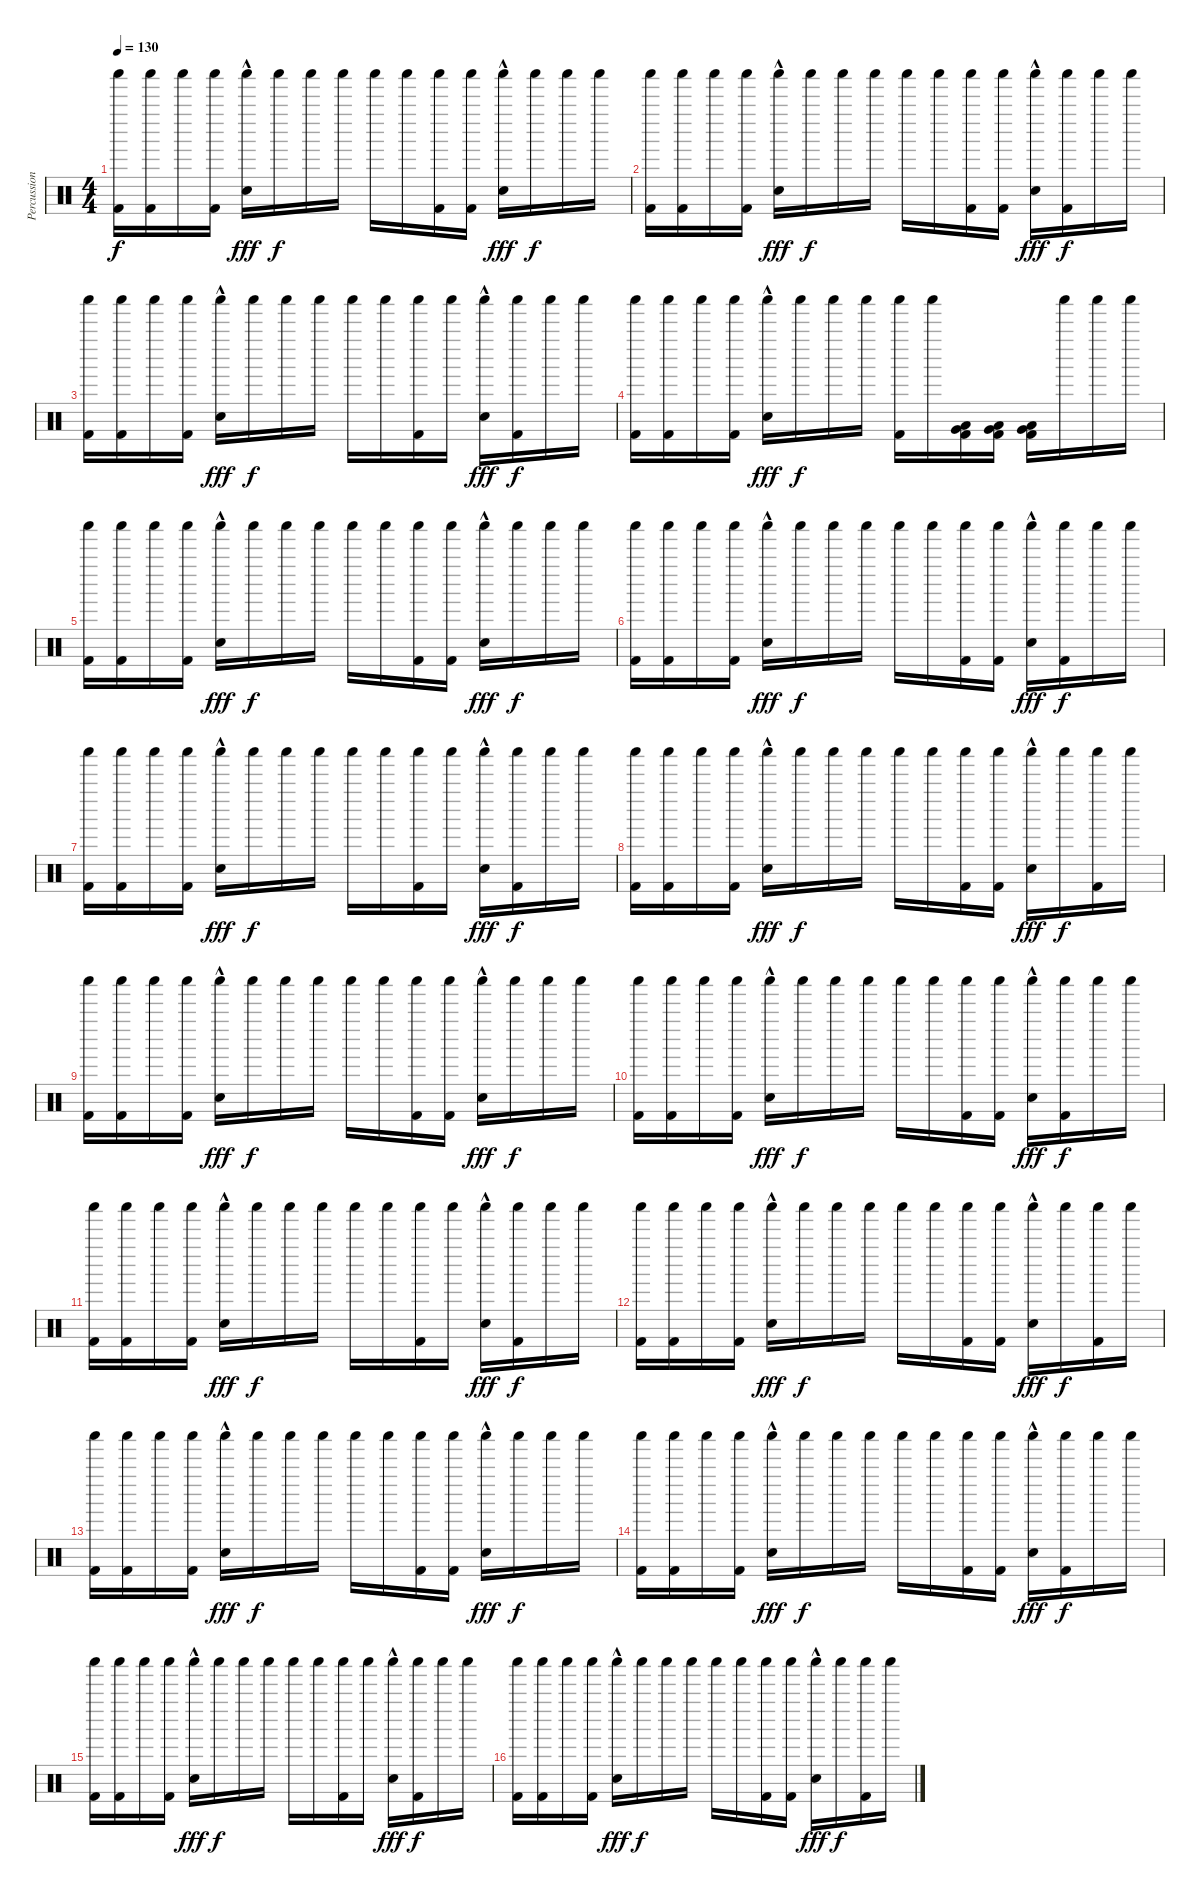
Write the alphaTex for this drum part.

\track ("Percussion" "Percussion") {instrument percussion}
\staff {score}
\articulation defaults
\ts (4 4)
\tempo 130
\clef neutral
\ks c
("Shaker (hit)" "Kick (hit) 2").16{dy f} ("Shaker (hit)" "Kick (hit) 2").16 "Shaker (hit)".16 ("Shaker (hit)" "Kick (hit) 2").16 ("Shaker (hit)" "Snare (hit) 2"{hac}).16{dy fff} "Shaker (hit)".16{dy f} "Shaker (hit)".16 "Shaker (hit)".16 "Shaker (hit)".16 "Shaker (hit)".16 ("Shaker (hit)" "Kick (hit) 2").16 ("Shaker (hit)" "Kick (hit) 2").16 ("Shaker (hit)" "Snare (hit) 2"{hac}).16{dy fff} "Shaker (hit)".16{dy f} "Shaker (hit)".16 "Shaker (hit)".16 |
("Shaker (hit)" "Kick (hit) 2").16 ("Shaker (hit)" "Kick (hit) 2").16 "Shaker (hit)".16 ("Shaker (hit)" "Kick (hit) 2").16 ("Shaker (hit)" "Snare (hit) 2"{hac}).16{dy fff} "Shaker (hit)".16{dy f} "Shaker (hit)".16 "Shaker (hit)".16 "Shaker (hit)".16 "Shaker (hit)".16 ("Shaker (hit)" "Kick (hit) 2").16 ("Shaker (hit)" "Kick (hit) 2").16 ("Shaker (hit)" "Snare (hit) 2"{hac}).16{dy fff} ("Shaker (hit)" "Kick (hit) 2").16{dy f} "Shaker (hit)".16 "Shaker (hit)".16 |
("Shaker (hit)" "Kick (hit) 2").16 ("Shaker (hit)" "Kick (hit) 2").16 "Shaker (hit)".16 ("Shaker (hit)" "Kick (hit) 2").16 ("Shaker (hit)" "Snare (hit) 2"{hac}).16{dy fff} "Shaker (hit)".16{dy f} "Shaker (hit)".16 "Shaker (hit)".16 "Shaker (hit)".16 "Shaker (hit)".16 ("Shaker (hit)" "Kick (hit) 2").16 "Shaker (hit)".16 ("Shaker (hit)" "Snare (hit) 2"{hac}).16{dy fff} ("Shaker (hit)" "Kick (hit) 2").16{dy f} "Shaker (hit)".16 "Shaker (hit)".16 |
("Shaker (hit)" "Kick (hit) 2").16 ("Shaker (hit)" "Kick (hit) 2").16 "Shaker (hit)".16 ("Shaker (hit)" "Kick (hit) 2").16 ("Shaker (hit)" "Snare (hit) 2"{hac}).16{dy fff} "Shaker (hit)".16{dy f} "Shaker (hit)".16 "Shaker (hit)".16 ("Shaker (hit)" "Kick (hit) 2").16 "Shaker (hit)".16 ("Low Floor Tom (hit)" "Very Low Tom (hit)" "Kick (hit) 2").16 ("Low Floor Tom (hit)" "Very Low Tom (hit)" "Kick (hit) 2").16 ("Low Floor Tom (hit)" "Very Low Tom (hit)" "Kick (hit) 2").16 "Shaker (hit)".16 "Shaker (hit)".16 "Shaker (hit)".16 |
("Shaker (hit)" "Kick (hit) 2").16 ("Shaker (hit)" "Kick (hit) 2").16 "Shaker (hit)".16 ("Shaker (hit)" "Kick (hit) 2").16 ("Shaker (hit)" "Snare (hit) 2"{hac}).16{dy fff} "Shaker (hit)".16{dy f} "Shaker (hit)".16 "Shaker (hit)".16 "Shaker (hit)".16 "Shaker (hit)".16 ("Shaker (hit)" "Kick (hit) 2").16 ("Shaker (hit)" "Kick (hit) 2").16 ("Shaker (hit)" "Snare (hit) 2"{hac}).16{dy fff} "Shaker (hit)".16{dy f} "Shaker (hit)".16 "Shaker (hit)".16 |
("Shaker (hit)" "Kick (hit) 2").16 ("Shaker (hit)" "Kick (hit) 2").16 "Shaker (hit)".16 ("Shaker (hit)" "Kick (hit) 2").16 ("Shaker (hit)" "Snare (hit) 2"{hac}).16{dy fff} "Shaker (hit)".16{dy f} "Shaker (hit)".16 "Shaker (hit)".16 "Shaker (hit)".16 "Shaker (hit)".16 ("Shaker (hit)" "Kick (hit) 2").16 ("Shaker (hit)" "Kick (hit) 2").16 ("Shaker (hit)" "Snare (hit) 2"{hac}).16{dy fff} ("Shaker (hit)" "Kick (hit) 2").16{dy f} "Shaker (hit)".16 "Shaker (hit)".16 |
("Shaker (hit)" "Kick (hit) 2").16 ("Shaker (hit)" "Kick (hit) 2").16 "Shaker (hit)".16 ("Shaker (hit)" "Kick (hit) 2").16 ("Shaker (hit)" "Snare (hit) 2"{hac}).16{dy fff} "Shaker (hit)".16{dy f} "Shaker (hit)".16 "Shaker (hit)".16 "Shaker (hit)".16 "Shaker (hit)".16 ("Shaker (hit)" "Kick (hit) 2").16 "Shaker (hit)".16 ("Shaker (hit)" "Snare (hit) 2"{hac}).16{dy fff} ("Shaker (hit)" "Kick (hit) 2").16{dy f} "Shaker (hit)".16 "Shaker (hit)".16 |
("Shaker (hit)" "Kick (hit) 2").16 ("Shaker (hit)" "Kick (hit) 2").16 "Shaker (hit)".16 ("Shaker (hit)" "Kick (hit) 2").16 ("Shaker (hit)" "Snare (hit) 2"{hac}).16{dy fff} "Shaker (hit)".16{dy f} "Shaker (hit)".16 "Shaker (hit)".16 "Shaker (hit)".16 "Shaker (hit)".16 ("Shaker (hit)" "Kick (hit) 2").16 ("Shaker (hit)" "Kick (hit) 2").16 ("Shaker (hit)" "Snare (hit) 2"{hac}).16{dy fff} "Shaker (hit)".16{dy f} ("Shaker (hit)" "Kick (hit) 2").16 "Shaker (hit)".16 |
("Shaker (hit)" "Kick (hit) 2").16 ("Shaker (hit)" "Kick (hit) 2").16 "Shaker (hit)".16 ("Shaker (hit)" "Kick (hit) 2").16 ("Shaker (hit)" "Snare (hit) 2"{hac}).16{dy fff} "Shaker (hit)".16{dy f} "Shaker (hit)".16 "Shaker (hit)".16 "Shaker (hit)".16 "Shaker (hit)".16 ("Shaker (hit)" "Kick (hit) 2").16 ("Shaker (hit)" "Kick (hit) 2").16 ("Shaker (hit)" "Snare (hit) 2"{hac}).16{dy fff} "Shaker (hit)".16{dy f} "Shaker (hit)".16 "Shaker (hit)".16 |
("Shaker (hit)" "Kick (hit) 2").16 ("Shaker (hit)" "Kick (hit) 2").16 "Shaker (hit)".16 ("Shaker (hit)" "Kick (hit) 2").16 ("Shaker (hit)" "Snare (hit) 2"{hac}).16{dy fff} "Shaker (hit)".16{dy f} "Shaker (hit)".16 "Shaker (hit)".16 "Shaker (hit)".16 "Shaker (hit)".16 ("Shaker (hit)" "Kick (hit) 2").16 ("Shaker (hit)" "Kick (hit) 2").16 ("Shaker (hit)" "Snare (hit) 2"{hac}).16{dy fff} ("Shaker (hit)" "Kick (hit) 2").16{dy f} "Shaker (hit)".16 "Shaker (hit)".16 |
("Shaker (hit)" "Kick (hit) 2").16 ("Shaker (hit)" "Kick (hit) 2").16 "Shaker (hit)".16 ("Shaker (hit)" "Kick (hit) 2").16 ("Shaker (hit)" "Snare (hit) 2"{hac}).16{dy fff} "Shaker (hit)".16{dy f} "Shaker (hit)".16 "Shaker (hit)".16 "Shaker (hit)".16 "Shaker (hit)".16 ("Shaker (hit)" "Kick (hit) 2").16 "Shaker (hit)".16 ("Shaker (hit)" "Snare (hit) 2"{hac}).16{dy fff} ("Shaker (hit)" "Kick (hit) 2").16{dy f} "Shaker (hit)".16 "Shaker (hit)".16 |
("Shaker (hit)" "Kick (hit) 2").16 ("Shaker (hit)" "Kick (hit) 2").16 "Shaker (hit)".16 ("Shaker (hit)" "Kick (hit) 2").16 ("Shaker (hit)" "Snare (hit) 2"{hac}).16{dy fff} "Shaker (hit)".16{dy f} "Shaker (hit)".16 "Shaker (hit)".16 "Shaker (hit)".16 "Shaker (hit)".16 ("Shaker (hit)" "Kick (hit) 2").16 ("Shaker (hit)" "Kick (hit) 2").16 ("Shaker (hit)" "Snare (hit) 2"{hac}).16{dy fff} "Shaker (hit)".16{dy f} ("Shaker (hit)" "Kick (hit) 2").16 "Shaker (hit)".16 |
("Shaker (hit)" "Kick (hit) 2").16 ("Shaker (hit)" "Kick (hit) 2").16 "Shaker (hit)".16 ("Shaker (hit)" "Kick (hit) 2").16 ("Shaker (hit)" "Snare (hit) 2"{hac}).16{dy fff} "Shaker (hit)".16{dy f} "Shaker (hit)".16 "Shaker (hit)".16 "Shaker (hit)".16 "Shaker (hit)".16 ("Shaker (hit)" "Kick (hit) 2").16 ("Shaker (hit)" "Kick (hit) 2").16 ("Shaker (hit)" "Snare (hit) 2"{hac}).16{dy fff} "Shaker (hit)".16{dy f} "Shaker (hit)".16 "Shaker (hit)".16 |
("Shaker (hit)" "Kick (hit) 2").16 ("Shaker (hit)" "Kick (hit) 2").16 "Shaker (hit)".16 ("Shaker (hit)" "Kick (hit) 2").16 ("Shaker (hit)" "Snare (hit) 2"{hac}).16{dy fff} "Shaker (hit)".16{dy f} "Shaker (hit)".16 "Shaker (hit)".16 "Shaker (hit)".16 "Shaker (hit)".16 ("Shaker (hit)" "Kick (hit) 2").16 ("Shaker (hit)" "Kick (hit) 2").16 ("Shaker (hit)" "Snare (hit) 2"{hac}).16{dy fff} ("Shaker (hit)" "Kick (hit) 2").16{dy f} "Shaker (hit)".16 "Shaker (hit)".16 |
("Shaker (hit)" "Kick (hit) 2").16 ("Shaker (hit)" "Kick (hit) 2").16 "Shaker (hit)".16 ("Shaker (hit)" "Kick (hit) 2").16 ("Shaker (hit)" "Snare (hit) 2"{hac}).16{dy fff} "Shaker (hit)".16{dy f} "Shaker (hit)".16 "Shaker (hit)".16 "Shaker (hit)".16 "Shaker (hit)".16 ("Shaker (hit)" "Kick (hit) 2").16 "Shaker (hit)".16 ("Shaker (hit)" "Snare (hit) 2"{hac}).16{dy fff} ("Shaker (hit)" "Kick (hit) 2").16{dy f} "Shaker (hit)".16 "Shaker (hit)".16 |
("Shaker (hit)" "Kick (hit) 2").16 ("Shaker (hit)" "Kick (hit) 2").16 "Shaker (hit)".16 ("Shaker (hit)" "Kick (hit) 2").16 ("Shaker (hit)" "Snare (hit) 2"{hac}).16{dy fff} "Shaker (hit)".16{dy f} "Shaker (hit)".16 "Shaker (hit)".16 "Shaker (hit)".16 "Shaker (hit)".16 ("Shaker (hit)" "Kick (hit) 2").16 ("Shaker (hit)" "Kick (hit) 2").16 ("Shaker (hit)" "Snare (hit) 2"{hac}).16{dy fff} "Shaker (hit)".16{dy f} ("Shaker (hit)" "Kick (hit) 2").16 "Shaker (hit)".16
